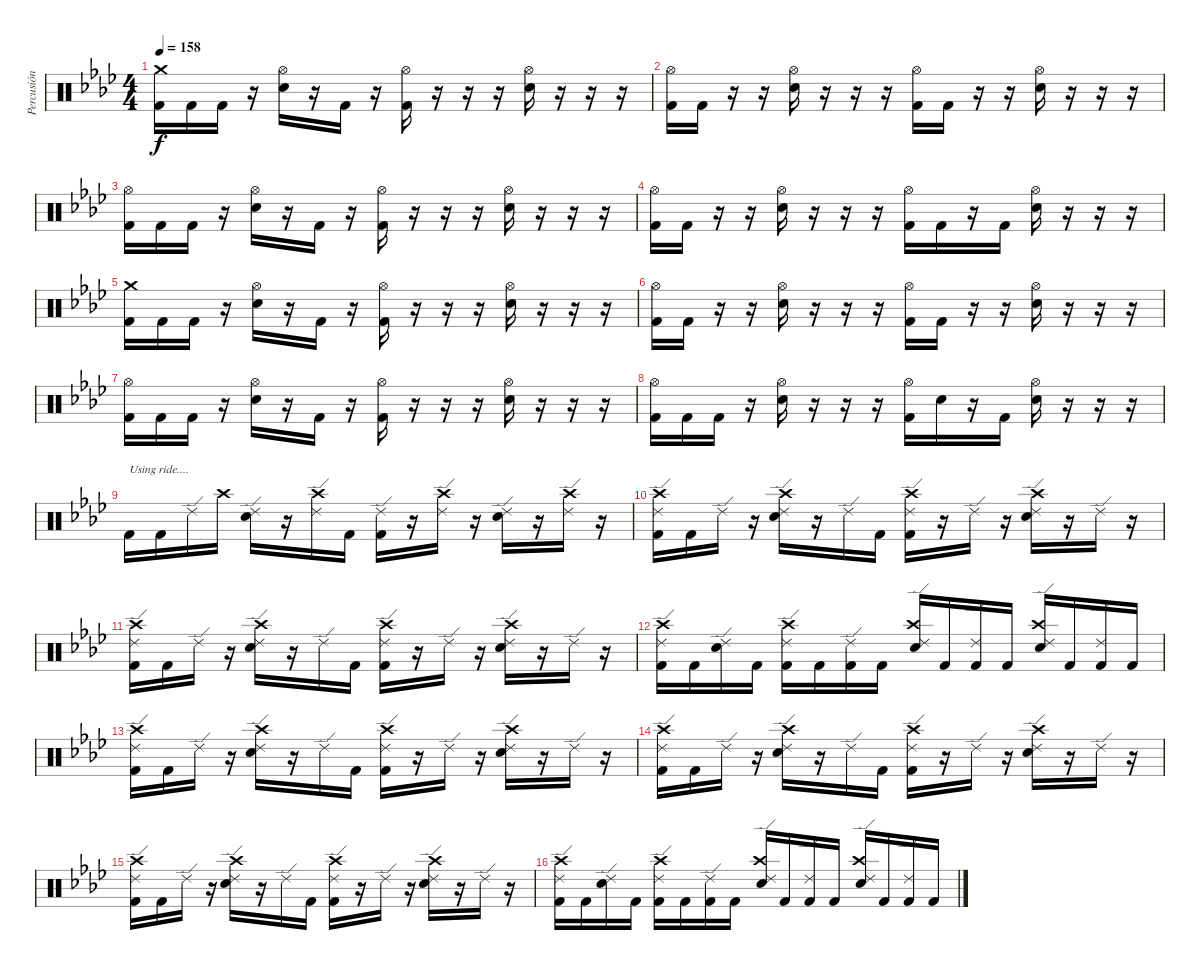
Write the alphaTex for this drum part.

\track ("Percusión" "Percusión") {instrument percussion}
\staff {score}
\articulation defaults
\ts (4 4)
\tempo 158
\clef neutral
\ks ab
("Crash medium (hit)" "Kick (hit) 2").16{dy f} "Kick (hit) 2".16 "Kick (hit) 2".16 r.16 ("Hi-Hat (open)" "Electric Snare (hit)").16 r.16 "Kick (hit) 2".16 r.16 ("Hi-Hat (open)" "Kick (hit) 2").16 r.16 r.16 r.16 ("Hi-Hat (open)" "Electric Snare (hit)").16 r.16 r.16 r.16 |
("Hi-Hat (open)" "Kick (hit) 2").16 "Kick (hit) 2".16 r.16 r.16 ("Hi-Hat (open)" "Electric Snare (hit)").16 r.16 r.16 r.16 ("Hi-Hat (open)" "Kick (hit) 2").16 "Kick (hit) 2".16 r.16 r.16 ("Hi-Hat (open)" "Electric Snare (hit)").16 r.16 r.16 r.16 |
("Hi-Hat (open)" "Kick (hit) 2").16 "Kick (hit) 2".16 "Kick (hit) 2".16 r.16 ("Hi-Hat (open)" "Electric Snare (hit)").16 r.16 "Kick (hit) 2".16 r.16 ("Hi-Hat (open)" "Kick (hit) 2").16 r.16 r.16 r.16 ("Hi-Hat (open)" "Electric Snare (hit)").16 r.16 r.16 r.16 |
("Hi-Hat (open)" "Kick (hit) 2").16 "Kick (hit) 2".16 r.16 r.16 ("Hi-Hat (open)" "Electric Snare (hit)").16 r.16 r.16 r.16 ("Hi-Hat (open)" "Kick (hit) 2").16 "Kick (hit) 2".16 r.16 "Kick (hit) 2".16 ("Hi-Hat (open)" "Electric Snare (hit)").16 r.16 r.16 r.16 |
("Crash medium (hit)" "Kick (hit) 2").16 "Kick (hit) 2".16 "Kick (hit) 2".16 r.16 ("Hi-Hat (open)" "Electric Snare (hit)").16 r.16 "Kick (hit) 2".16 r.16 ("Hi-Hat (open)" "Kick (hit) 2").16 r.16 r.16 r.16 ("Hi-Hat (open)" "Electric Snare (hit)").16 r.16 r.16 r.16 |
("Hi-Hat (open)" "Kick (hit) 2").16 "Kick (hit) 2".16 r.16 r.16 ("Hi-Hat (open)" "Electric Snare (hit)").16 r.16 r.16 r.16 ("Hi-Hat (open)" "Kick (hit) 2").16 "Kick (hit) 2".16 r.16 r.16 ("Hi-Hat (open)" "Electric Snare (hit)").16 r.16 r.16 r.16 |
("Hi-Hat (open)" "Kick (hit) 2").16 "Kick (hit) 2".16 "Kick (hit) 2".16 r.16 ("Hi-Hat (open)" "Electric Snare (hit)").16 r.16 "Kick (hit) 2".16 r.16 ("Hi-Hat (open)" "Kick (hit) 2").16 r.16 r.16 r.16 ("Hi-Hat (open)" "Electric Snare (hit)").16 r.16 r.16 r.16 |
("Hi-Hat (open)" "Kick (hit) 2").16 "Kick (hit) 2".16 "Kick (hit) 2".16 r.16 ("Hi-Hat (open)" "Electric Snare (hit)").16 r.16 r.16 r.16 ("Hi-Hat (open)" "Kick (hit) 2").16 "Electric Snare (hit)".16 r.16 "Kick (hit) 2".16 ("Hi-Hat (open)" "Electric Snare (hit)").16 r.16 r.16 r.16 |
"Kick (hit) 2".16{txt "Using ride...."} "Kick (hit) 2".16 "Ride (edge) 2".16 "Crash high (hit)".16 ("Ride (edge) 2" "Electric Snare (hit)").16 r.16 ("Crash high (hit)" "Ride (edge) 2").16 "Kick (hit) 2".16 ("Ride (edge) 2" "Kick (hit) 2").16 r.16 ("Crash high (hit)" "Ride (edge) 2").16 r.16 ("Ride (edge) 2" "Electric Snare (hit)").16 r.16 ("Crash high (hit)" "Ride (edge) 2").16 r.16 |
("Crash high (hit)" "Ride (edge) 2" "Kick (hit) 2").16 "Kick (hit) 2".16 "Ride (edge) 2".16 r.16 ("Crash high (hit)" "Ride (edge) 2" "Electric Snare (hit)").16 r.16 "Ride (edge) 2".16 "Kick (hit) 2".16 ("Crash high (hit)" "Ride (edge) 2" "Kick (hit) 2").16 r.16 "Ride (edge) 2".16 r.16 ("Crash high (hit)" "Ride (edge) 2" "Electric Snare (hit)").16 r.16 "Ride (edge) 2".16 r.16 |
("Crash high (hit)" "Ride (edge) 2" "Kick (hit) 2").16 "Kick (hit) 2".16 "Ride (edge) 2".16 r.16 ("Crash high (hit)" "Ride (edge) 2" "Electric Snare (hit)").16 r.16 "Ride (edge) 2".16 "Kick (hit) 2".16 ("Crash high (hit)" "Ride (edge) 2" "Kick (hit) 2").16 r.16 "Ride (edge) 2".16 r.16 ("Crash high (hit)" "Ride (edge) 2" "Electric Snare (hit)").16 r.16 "Ride (edge) 2".16 r.16 |
("Crash high (hit)" "Ride (edge) 2" "Kick (hit) 2").16 "Kick (hit) 2".16 ("Ride (edge) 2" "Snare (hit) 2").16 "Kick (hit) 2".16 ("Crash high (hit)" "Ride (edge) 2" "Kick (hit) 2").16 "Kick (hit) 2".16 ("Ride (edge) 2" "Kick (hit) 2").16 "Kick (hit) 2".16 ("Crash high (hit)" "Ride (edge) 2" "Snare (hit) 2").16 "Kick (hit) 2".16 ("Ride (edge) 2" "Kick (hit) 2").16 "Kick (hit) 2".16 ("Crash high (hit)" "Ride (edge) 2" "Snare (hit) 2").16 "Kick (hit) 2".16 ("Ride (edge) 2" "Kick (hit) 2").16 "Kick (hit) 2".16 |
("Crash high (hit)" "Ride (edge) 2" "Kick (hit) 2").16 "Kick (hit) 2".16 "Ride (edge) 2".16 r.16 ("Crash high (hit)" "Ride (edge) 2" "Electric Snare (hit)").16 r.16 "Ride (edge) 2".16 "Kick (hit) 2".16 ("Crash high (hit)" "Ride (edge) 2" "Kick (hit) 2").16 r.16 "Ride (edge) 2".16 r.16 ("Crash high (hit)" "Ride (edge) 2" "Electric Snare (hit)").16 r.16 "Ride (edge) 2".16 r.16 |
("Crash high (hit)" "Ride (edge) 2" "Kick (hit) 2").16 "Kick (hit) 2".16 "Ride (edge) 2".16 r.16 ("Crash high (hit)" "Ride (edge) 2" "Electric Snare (hit)").16 r.16 "Ride (edge) 2".16 "Kick (hit) 2".16 ("Crash high (hit)" "Ride (edge) 2" "Kick (hit) 2").16 r.16 "Ride (edge) 2".16 r.16 ("Crash high (hit)" "Ride (edge) 2" "Electric Snare (hit)").16 r.16 "Ride (edge) 2".16 r.16 |
("Crash high (hit)" "Ride (edge) 2" "Kick (hit) 2").16 "Kick (hit) 2".16 "Ride (edge) 2".16 r.16 ("Crash high (hit)" "Ride (edge) 2" "Electric Snare (hit)").16 r.16 "Ride (edge) 2".16 "Kick (hit) 2".16 ("Crash high (hit)" "Ride (edge) 2" "Kick (hit) 2").16 r.16 "Ride (edge) 2".16 r.16 ("Crash high (hit)" "Ride (edge) 2" "Electric Snare (hit)").16 r.16 "Ride (edge) 2".16 r.16 |
("Crash high (hit)" "Ride (edge) 2" "Kick (hit) 2").16 "Kick (hit) 2".16 ("Ride (edge) 2" "Snare (hit) 2").16 "Kick (hit) 2".16 ("Crash high (hit)" "Ride (edge) 2" "Kick (hit) 2").16 "Kick (hit) 2".16 ("Ride (edge) 2" "Kick (hit) 2").16 "Kick (hit) 2".16 ("Crash high (hit)" "Ride (edge) 2" "Snare (hit) 2").16 "Kick (hit) 2".16 ("Ride (edge) 2" "Kick (hit) 2").16 "Kick (hit) 2".16 ("Crash high (hit)" "Ride (edge) 2" "Snare (hit) 2").16 "Kick (hit) 2".16 ("Ride (edge) 2" "Kick (hit) 2").16 "Kick (hit) 2".16
